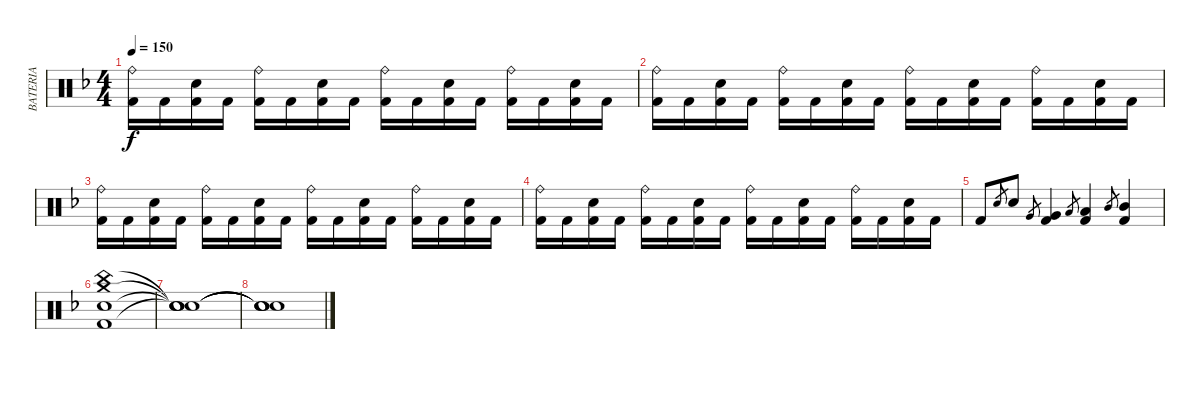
\track ("BATERIA" "BATERIA") {instrument percussion}
\staff {score}
\articulation defaults
\ts (4 4)
\tempo 150
\clef neutral
\ks dminor
("Ride (bell)" "Kick (hit) 2").16{dy f} "Kick (hit) 2".16 ("Snare (hit) 2" "Kick (hit) 2").16 "Kick (hit) 2".16 ("Ride (bell)" "Kick (hit) 2").16 "Kick (hit) 2".16 ("Snare (hit) 2" "Kick (hit) 2").16 "Kick (hit) 2".16 ("Ride (bell)" "Kick (hit) 2").16 "Kick (hit) 2".16 ("Snare (hit) 2" "Kick (hit) 2").16 "Kick (hit) 2".16 ("Ride (bell)" "Kick (hit) 2").16 "Kick (hit) 2".16 ("Snare (hit) 2" "Kick (hit) 2").16 "Kick (hit) 2".16 |
("Ride (bell)" "Kick (hit) 2").16 "Kick (hit) 2".16 ("Snare (hit) 2" "Kick (hit) 2").16 "Kick (hit) 2".16 ("Ride (bell)" "Kick (hit) 2").16 "Kick (hit) 2".16 ("Snare (hit) 2" "Kick (hit) 2").16 "Kick (hit) 2".16 ("Ride (bell)" "Kick (hit) 2").16 "Kick (hit) 2".16 ("Snare (hit) 2" "Kick (hit) 2").16 "Kick (hit) 2".16 ("Ride (bell)" "Kick (hit) 2").16 "Kick (hit) 2".16 ("Snare (hit) 2" "Kick (hit) 2").16 "Kick (hit) 2".16 |
("Ride (bell)" "Kick (hit) 2").16 "Kick (hit) 2".16 ("Snare (hit) 2" "Kick (hit) 2").16 "Kick (hit) 2".16 ("Ride (bell)" "Kick (hit) 2").16 "Kick (hit) 2".16 ("Snare (hit) 2" "Kick (hit) 2").16 "Kick (hit) 2".16 ("Ride (bell)" "Kick (hit) 2").16 "Kick (hit) 2".16 ("Snare (hit) 2" "Kick (hit) 2").16 "Kick (hit) 2".16 ("Ride (bell)" "Kick (hit) 2").16 "Kick (hit) 2".16 ("Snare (hit) 2" "Kick (hit) 2").16 "Kick (hit) 2".16 |
("Ride (bell)" "Kick (hit) 2").16 "Kick (hit) 2".16 ("Snare (hit) 2" "Kick (hit) 2").16 "Kick (hit) 2".16 ("Ride (bell)" "Kick (hit) 2").16 "Kick (hit) 2".16 ("Snare (hit) 2" "Kick (hit) 2").16 "Kick (hit) 2".16 ("Ride (bell)" "Kick (hit) 2").16 "Kick (hit) 2".16 ("Snare (hit) 2" "Kick (hit) 2").16 "Kick (hit) 2".16 ("Ride (bell)" "Kick (hit) 2").16 "Kick (hit) 2".16 ("Snare (hit) 2" "Kick (hit) 2").16 "Kick (hit) 2".16 |
"Kick (hit) 2".8 "Snare (hit) 2".8{gr} "Snare (hit) 2".8 "Very Low Tom (hit)".8{gr} ("Very Low Tom (hit)" "Kick (hit) 2").4 "Low Tom (hit)".8{gr} ("Low Tom (hit)" "Kick (hit) 2").4 "Mid Tom (hit)".8{gr} ("Mid Tom (hit)" "Kick (hit) 2").4 |
("Crash medium (hit)" "China (hit)" "Kick (hit) 2" "Snare (hit) 2").1{volume 0} |
("Snare (hit)"{t} "Snare (hit)"{t} "Snare (hit)"{t} "Snare (hit)"{t}).1 |
("Snare (hit)"{t} "Snare (hit)"{t} "Snare (hit)"{t} "Snare (hit)"{t}).1
